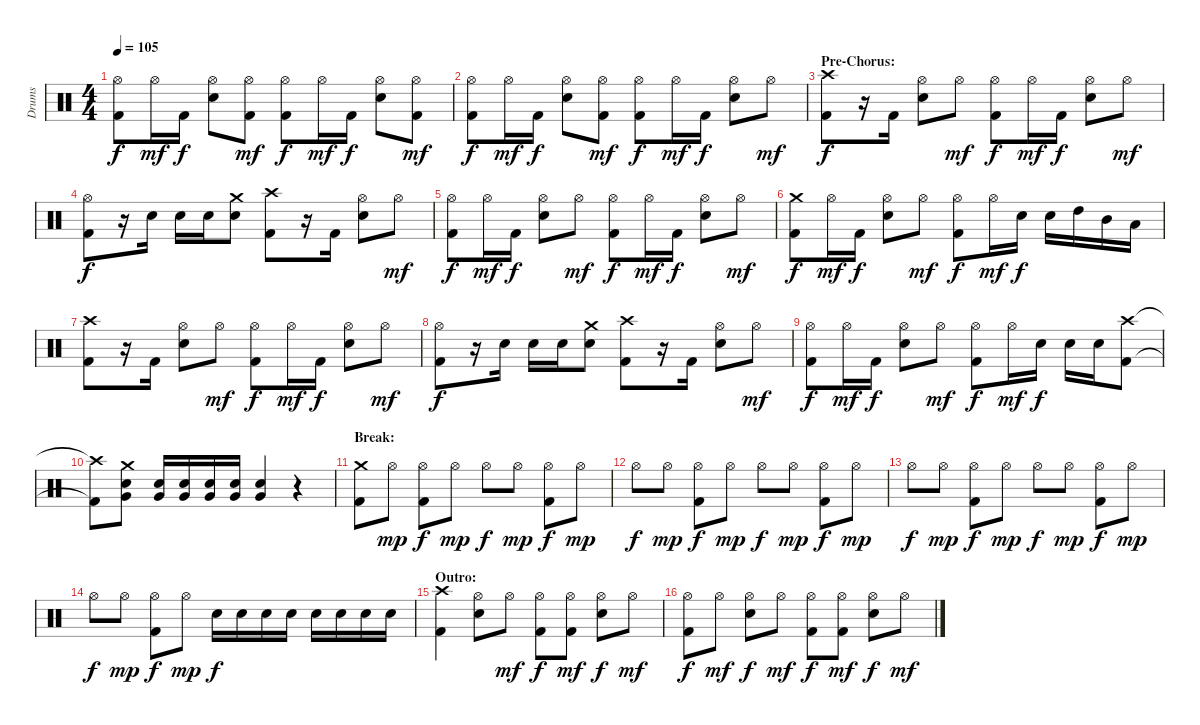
\track ("Drums" "Drums") {instrument percussion}
\staff {score}
\articulation defaults
\ts (4 4)
\tempo 105
\clef neutral
\ks c
("Hi-Hat (open)" "Kick (hit) 2").8{dy f} "Hi-Hat (open)".16{dy mf} "Kick (hit) 2".16{dy f} ("Hi-Hat (open)" "Electric Snare (hit)").8 ("Hi-Hat (open)" "Kick (hit) 2").8{dy mf} ("Hi-Hat (open)" "Kick (hit) 2").8{dy f} "Hi-Hat (open)".16{dy mf} "Kick (hit) 2".16{dy f} ("Hi-Hat (open)" "Electric Snare (hit)").8 ("Hi-Hat (open)" "Kick (hit) 2").8{dy mf} |
("Hi-Hat (open)" "Kick (hit) 2").8{dy f} "Hi-Hat (open)".16{dy mf} "Kick (hit) 2".16{dy f} ("Hi-Hat (open)" "Electric Snare (hit)").8 ("Hi-Hat (open)" "Kick (hit) 2").8{dy mf} ("Hi-Hat (open)" "Kick (hit) 2").8{dy f} "Hi-Hat (open)".16{dy mf} "Kick (hit) 2".16{dy f} ("Hi-Hat (open)" "Electric Snare (hit)").8 "Hi-Hat (open)".8{dy mf} |
\section ("" "Pre-Chorus:")
("Crash high (hit)" "Kick (hit) 2").8{dy f} r.16 "Kick (hit) 2".16 ("Hi-Hat (open)" "Electric Snare (hit)").8 "Hi-Hat (open)".8{dy mf} ("Hi-Hat (open)" "Kick (hit) 2").8{dy f} "Hi-Hat (open)".16{dy mf} "Kick (hit) 2".16{dy f} ("Hi-Hat (open)" "Electric Snare (hit)").8 "Hi-Hat (open)".8{dy mf} |
("Hi-Hat (open)" "Kick (hit) 2").8{dy f} r.16 "Electric Snare (hit)".16 "Electric Snare (hit)".16 "Electric Snare (hit)".16 ("Crash medium (hit)" "Electric Snare (hit)").8 ("Crash high (hit)" "Kick (hit) 2").8 r.16 "Kick (hit) 2".16 ("Hi-Hat (open)" "Electric Snare (hit)").8 "Hi-Hat (open)".8{dy mf} |
("Hi-Hat (open)" "Kick (hit) 2").8{dy f} "Hi-Hat (open)".16{dy mf} "Kick (hit) 2".16{dy f} ("Hi-Hat (open)" "Electric Snare (hit)").8 "Hi-Hat (open)".8{dy mf} ("Hi-Hat (open)" "Kick (hit) 2").8{dy f} "Hi-Hat (open)".16{dy mf} "Kick (hit) 2".16{dy f} ("Hi-Hat (open)" "Electric Snare (hit)").8 "Hi-Hat (open)".8{dy mf} |
("Crash medium (hit)" "Kick (hit) 2").8{dy f} "Hi-Hat (open)".16{dy mf} "Kick (hit) 2".16{dy f} ("Hi-Hat (open)" "Electric Snare (hit)").8 "Hi-Hat (open)".8{dy mf} ("Hi-Hat (open)" "Kick (hit) 2").8{dy f} "Hi-Hat (open)".16{dy mf} "Electric Snare (hit)".16{dy f} "Electric Snare (hit)".16 "High Tom (hit)".16 "Mid Tom (hit)".16 "Low Tom (hit)".16 |
("Crash high (hit)" "Kick (hit) 2").8 r.16 "Kick (hit) 2".16 ("Hi-Hat (open)" "Electric Snare (hit)").8 "Hi-Hat (open)".8{dy mf} ("Hi-Hat (open)" "Kick (hit) 2").8{dy f} "Hi-Hat (open)".16{dy mf} "Kick (hit) 2".16{dy f} ("Hi-Hat (open)" "Electric Snare (hit)").8 "Hi-Hat (open)".8{dy mf} |
("Hi-Hat (open)" "Kick (hit) 2").8{dy f} r.16 "Electric Snare (hit)".16 "Electric Snare (hit)".16 "Electric Snare (hit)".16 ("Crash medium (hit)" "Electric Snare (hit)").8 ("Crash high (hit)" "Kick (hit) 2").8 r.16 "Kick (hit) 2".16 ("Hi-Hat (open)" "Electric Snare (hit)").8 "Hi-Hat (open)".8{dy mf} |
("Hi-Hat (open)" "Kick (hit) 2").8{dy f} "Hi-Hat (open)".16{dy mf} "Kick (hit) 2".16{dy f} ("Hi-Hat (open)" "Electric Snare (hit)").8 "Hi-Hat (open)".8{dy mf} ("Hi-Hat (open)" "Kick (hit) 2").8{dy f} "Hi-Hat (open)".16{dy mf} "Electric Snare (hit)".16{dy f} "Electric Snare (hit)".16 "Electric Snare (hit)".16 ("Crash high (hit)" "Kick (hit) 2").8 |
("Crash high (hit)"{t} "Kick (hit) 2"{t}).8 ("Crash medium (hit)" "Electric Snare (hit)" "Very Low Tom (hit)").8 ("Electric Snare (hit)" "Very Low Tom (hit)").16 ("Electric Snare (hit)" "Very Low Tom (hit)").16 ("Electric Snare (hit)" "Very Low Tom (hit)").16 ("Electric Snare (hit)" "Very Low Tom (hit)").16 ("Electric Snare (hit)" "Very Low Tom (hit)").4 r.4 |
\section ("" "Break:")
("Crash medium (hit)" "Kick (hit) 2").8 "Hi-Hat (open)".8{dy mp} ("Hi-Hat (open)" "Kick (hit) 2").8{dy f} "Hi-Hat (open)".8{dy mp} "Hi-Hat (open)".8{dy f} "Hi-Hat (open)".8{dy mp} ("Hi-Hat (open)" "Kick (hit) 2").8{dy f} "Hi-Hat (open)".8{dy mp} |
"Hi-Hat (open)".8{dy f} "Hi-Hat (open)".8{dy mp} ("Hi-Hat (open)" "Kick (hit) 2").8{dy f} "Hi-Hat (open)".8{dy mp} "Hi-Hat (open)".8{dy f} "Hi-Hat (open)".8{dy mp} ("Hi-Hat (open)" "Kick (hit) 2").8{dy f} "Hi-Hat (open)".8{dy mp} |
"Hi-Hat (open)".8{dy f} "Hi-Hat (open)".8{dy mp} ("Hi-Hat (open)" "Kick (hit) 2").8{dy f} "Hi-Hat (open)".8{dy mp} "Hi-Hat (open)".8{dy f} "Hi-Hat (open)".8{dy mp} ("Hi-Hat (open)" "Kick (hit) 2").8{dy f} "Hi-Hat (open)".8{dy mp} |
"Hi-Hat (open)".8{dy f} "Hi-Hat (open)".8{dy mp} ("Hi-Hat (open)" "Kick (hit) 2").8{dy f} "Hi-Hat (open)".8{dy mp} "Electric Snare (hit)".16{dy f} "Electric Snare (hit)".16 "Electric Snare (hit)".16 "Electric Snare (hit)".16 "Electric Snare (hit)".16 "Electric Snare (hit)".16 "Electric Snare (hit)".16 "Electric Snare (hit)".16 |
\section ("" "Outro:")
("Crash high (hit)" "Kick (hit) 2").4 ("Hi-Hat (open)" "Electric Snare (hit)").8 "Hi-Hat (open)".8{dy mf} ("Hi-Hat (open)" "Kick (hit) 2").8{dy f} ("Hi-Hat (open)" "Kick (hit) 2").8{dy mf} ("Hi-Hat (open)" "Electric Snare (hit)").8{dy f} "Hi-Hat (open)".8{dy mf} |
("Hi-Hat (open)" "Kick (hit) 2").8{dy f} "Hi-Hat (open)".8{dy mf} ("Hi-Hat (open)" "Electric Snare (hit)").8{dy f} "Hi-Hat (open)".8{dy mf} ("Hi-Hat (open)" "Kick (hit) 2").8{dy f} ("Hi-Hat (open)" "Kick (hit) 2").8{dy mf} ("Hi-Hat (open)" "Electric Snare (hit)").8{dy f} "Hi-Hat (open)".8{dy mf}
